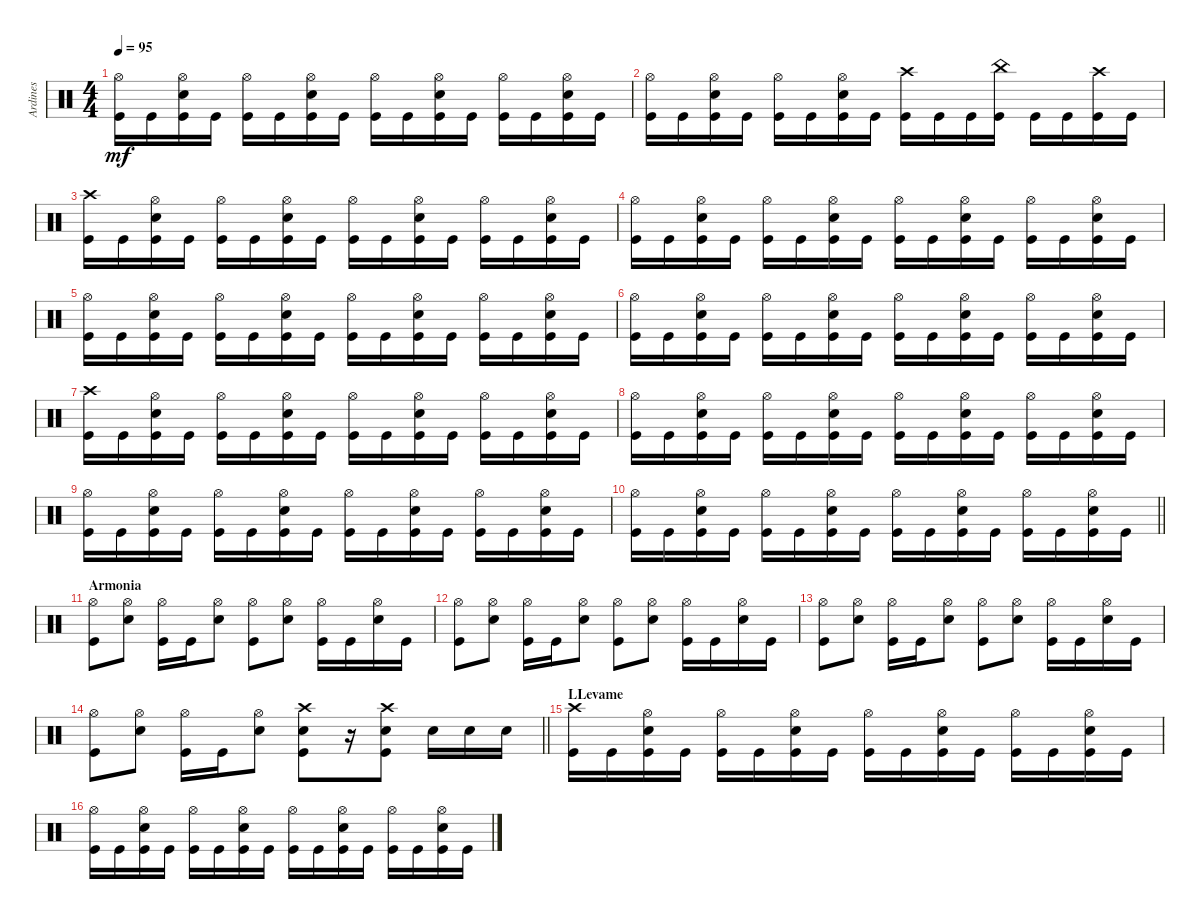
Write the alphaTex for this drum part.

\track ("Ardines" "Ardines") {instrument percussion}
\staff {score}
\articulation defaults
\ts (4 4)
\tempo 95
\clef neutral
\ks c
("Hi-Hat (open)" "Kick (hit)").16{dy mf} "Kick (hit)".16 ("Hi-Hat (open)" "Snare (hit) 2" "Kick (hit)").16 "Kick (hit)".16 ("Hi-Hat (open)" "Kick (hit)").16 "Kick (hit)".16 ("Hi-Hat (open)" "Snare (hit) 2" "Kick (hit)").16 "Kick (hit)".16 ("Hi-Hat (open)" "Kick (hit)").16 "Kick (hit)".16 ("Hi-Hat (open)" "Snare (hit) 2" "Kick (hit)").16 "Kick (hit)".16 ("Hi-Hat (open)" "Kick (hit)").16 "Kick (hit)".16 ("Hi-Hat (open)" "Snare (hit) 2" "Kick (hit)").16 "Kick (hit)".16 |
("Hi-Hat (open)" "Kick (hit)").16 "Kick (hit)".16 ("Hi-Hat (open)" "Snare (hit) 2" "Kick (hit)").16 "Kick (hit)".16 ("Hi-Hat (open)" "Kick (hit)").16 "Kick (hit)".16 ("Hi-Hat (open)" "Snare (hit) 2" "Kick (hit)").16 "Kick (hit)".16 ("Crash high (hit)" "Kick (hit)").16 "Kick (hit)".16 "Kick (hit)".16 ("China (hit)" "Kick (hit)").16 "Kick (hit)".16 "Kick (hit)".16 ("Crash high (hit)" "Kick (hit)").16 "Kick (hit)".16 |
("Crash high (hit)" "Kick (hit)").16 "Kick (hit)".16 ("Hi-Hat (open)" "Snare (hit) 2" "Kick (hit)").16 "Kick (hit)".16 ("Hi-Hat (open)" "Kick (hit)").16 "Kick (hit)".16 ("Hi-Hat (open)" "Snare (hit) 2" "Kick (hit)").16 "Kick (hit)".16 ("Hi-Hat (open)" "Kick (hit)").16 "Kick (hit)".16 ("Hi-Hat (open)" "Snare (hit) 2" "Kick (hit)").16 "Kick (hit)".16 ("Hi-Hat (open)" "Kick (hit)").16 "Kick (hit)".16 ("Hi-Hat (open)" "Snare (hit) 2" "Kick (hit)").16 "Kick (hit)".16 |
("Hi-Hat (open)" "Kick (hit)").16 "Kick (hit)".16 ("Hi-Hat (open)" "Snare (hit) 2" "Kick (hit)").16 "Kick (hit)".16 ("Hi-Hat (open)" "Kick (hit)").16 "Kick (hit)".16 ("Hi-Hat (open)" "Snare (hit) 2" "Kick (hit)").16 "Kick (hit)".16 ("Hi-Hat (open)" "Kick (hit)").16 "Kick (hit)".16 ("Hi-Hat (open)" "Snare (hit) 2" "Kick (hit)").16 "Kick (hit)".16 ("Hi-Hat (open)" "Kick (hit)").16 "Kick (hit)".16 ("Hi-Hat (open)" "Snare (hit) 2" "Kick (hit)").16 "Kick (hit)".16 |
("Hi-Hat (open)" "Kick (hit)").16 "Kick (hit)".16 ("Hi-Hat (open)" "Snare (hit) 2" "Kick (hit)").16 "Kick (hit)".16 ("Hi-Hat (open)" "Kick (hit)").16 "Kick (hit)".16 ("Hi-Hat (open)" "Snare (hit) 2" "Kick (hit)").16 "Kick (hit)".16 ("Hi-Hat (open)" "Kick (hit)").16 "Kick (hit)".16 ("Hi-Hat (open)" "Snare (hit) 2" "Kick (hit)").16 "Kick (hit)".16 ("Hi-Hat (open)" "Kick (hit)").16 "Kick (hit)".16 ("Hi-Hat (open)" "Snare (hit) 2" "Kick (hit)").16 "Kick (hit)".16 |
("Hi-Hat (open)" "Kick (hit)").16 "Kick (hit)".16 ("Hi-Hat (open)" "Snare (hit) 2" "Kick (hit)").16 "Kick (hit)".16 ("Hi-Hat (open)" "Kick (hit)").16 "Kick (hit)".16 ("Hi-Hat (open)" "Snare (hit) 2" "Kick (hit)").16 "Kick (hit)".16 ("Hi-Hat (open)" "Kick (hit)").16 "Kick (hit)".16 ("Hi-Hat (open)" "Snare (hit) 2" "Kick (hit)").16 "Kick (hit)".16 ("Hi-Hat (open)" "Kick (hit)").16 "Kick (hit)".16 ("Hi-Hat (open)" "Snare (hit) 2" "Kick (hit)").16 "Kick (hit)".16 |
("Crash high (hit)" "Kick (hit)").16 "Kick (hit)".16 ("Hi-Hat (open)" "Snare (hit) 2" "Kick (hit)").16 "Kick (hit)".16 ("Hi-Hat (open)" "Kick (hit)").16 "Kick (hit)".16 ("Hi-Hat (open)" "Snare (hit) 2" "Kick (hit)").16 "Kick (hit)".16 ("Hi-Hat (open)" "Kick (hit)").16 "Kick (hit)".16 ("Hi-Hat (open)" "Snare (hit) 2" "Kick (hit)").16 "Kick (hit)".16 ("Hi-Hat (open)" "Kick (hit)").16 "Kick (hit)".16 ("Hi-Hat (open)" "Snare (hit) 2" "Kick (hit)").16 "Kick (hit)".16 |
("Hi-Hat (open)" "Kick (hit)").16 "Kick (hit)".16 ("Hi-Hat (open)" "Snare (hit) 2" "Kick (hit)").16 "Kick (hit)".16 ("Hi-Hat (open)" "Kick (hit)").16 "Kick (hit)".16 ("Hi-Hat (open)" "Snare (hit) 2" "Kick (hit)").16 "Kick (hit)".16 ("Hi-Hat (open)" "Kick (hit)").16 "Kick (hit)".16 ("Hi-Hat (open)" "Snare (hit) 2" "Kick (hit)").16 "Kick (hit)".16 ("Hi-Hat (open)" "Kick (hit)").16 "Kick (hit)".16 ("Hi-Hat (open)" "Snare (hit) 2" "Kick (hit)").16 "Kick (hit)".16 |
("Hi-Hat (open)" "Kick (hit)").16 "Kick (hit)".16 ("Hi-Hat (open)" "Snare (hit) 2" "Kick (hit)").16 "Kick (hit)".16 ("Hi-Hat (open)" "Kick (hit)").16 "Kick (hit)".16 ("Hi-Hat (open)" "Snare (hit) 2" "Kick (hit)").16 "Kick (hit)".16 ("Hi-Hat (open)" "Kick (hit)").16 "Kick (hit)".16 ("Hi-Hat (open)" "Snare (hit) 2" "Kick (hit)").16 "Kick (hit)".16 ("Hi-Hat (open)" "Kick (hit)").16 "Kick (hit)".16 ("Hi-Hat (open)" "Snare (hit) 2" "Kick (hit)").16 "Kick (hit)".16 |
\barLineRight lightlight
("Hi-Hat (open)" "Kick (hit)").16 "Kick (hit)".16 ("Hi-Hat (open)" "Snare (hit) 2" "Kick (hit)").16 "Kick (hit)".16 ("Hi-Hat (open)" "Kick (hit)").16 "Kick (hit)".16 ("Hi-Hat (open)" "Snare (hit) 2" "Kick (hit)").16 "Kick (hit)".16 ("Hi-Hat (open)" "Kick (hit)").16 "Kick (hit)".16 ("Hi-Hat (open)" "Snare (hit) 2" "Kick (hit)").16 "Kick (hit)".16 ("Hi-Hat (open)" "Kick (hit)").16 "Kick (hit)".16 ("Hi-Hat (open)" "Snare (hit) 2" "Kick (hit)").16 "Kick (hit)".16 |
\section ("" "Armonia")
("Hi-Hat (open)" "Kick (hit)").8 ("Hi-Hat (open)" "Snare (hit) 2").8 ("Hi-Hat (open)" "Kick (hit)").16 "Kick (hit)".16 ("Hi-Hat (open)" "Snare (hit) 2").8 ("Hi-Hat (open)" "Kick (hit)").8 ("Hi-Hat (open)" "Snare (hit) 2").8 ("Hi-Hat (open)" "Kick (hit)").16 "Kick (hit)".16 ("Hi-Hat (open)" "Snare (hit) 2").16 "Kick (hit)".16 |
("Hi-Hat (open)" "Kick (hit)").8 ("Hi-Hat (open)" "Snare (hit) 2").8 ("Hi-Hat (open)" "Kick (hit)").16 "Kick (hit)".16 ("Hi-Hat (open)" "Snare (hit) 2").8 ("Hi-Hat (open)" "Kick (hit)").8 ("Hi-Hat (open)" "Snare (hit) 2").8 ("Hi-Hat (open)" "Kick (hit)").16 "Kick (hit)".16 ("Hi-Hat (open)" "Snare (hit) 2").16 "Kick (hit)".16 |
("Hi-Hat (open)" "Kick (hit)").8 ("Hi-Hat (open)" "Snare (hit) 2").8 ("Hi-Hat (open)" "Kick (hit)").16 "Kick (hit)".16 ("Hi-Hat (open)" "Snare (hit) 2").8 ("Hi-Hat (open)" "Kick (hit)").8 ("Hi-Hat (open)" "Snare (hit) 2").8 ("Hi-Hat (open)" "Kick (hit)").16 "Kick (hit)".16 ("Hi-Hat (open)" "Snare (hit) 2").16 "Kick (hit)".16 |
\barLineRight lightlight
("Hi-Hat (open)" "Kick (hit)").8 ("Hi-Hat (open)" "Snare (hit) 2").8 ("Hi-Hat (open)" "Kick (hit)").16 "Kick (hit)".16 ("Hi-Hat (open)" "Snare (hit) 2").8 ("Crash high (hit)" "Snare (hit) 2" "Kick (hit)").8 r.16 ("Crash high (hit)" "Snare (hit) 2" "Kick (hit)").8 "Snare (hit) 2".16 "Snare (hit) 2".16 "Snare (hit) 2".16 |
\section ("" "LLevame")
("Crash high (hit)" "Kick (hit)").16 "Kick (hit)".16 ("Hi-Hat (open)" "Snare (hit) 2" "Kick (hit)").16 "Kick (hit)".16 ("Hi-Hat (open)" "Kick (hit)").16 "Kick (hit)".16 ("Hi-Hat (open)" "Snare (hit) 2" "Kick (hit)").16 "Kick (hit)".16 ("Hi-Hat (open)" "Kick (hit)").16 "Kick (hit)".16 ("Hi-Hat (open)" "Snare (hit) 2" "Kick (hit)").16 "Kick (hit)".16 ("Hi-Hat (open)" "Kick (hit)").16 "Kick (hit)".16 ("Hi-Hat (open)" "Snare (hit) 2" "Kick (hit)").16 "Kick (hit)".16 |
("Hi-Hat (open)" "Kick (hit)").16 "Kick (hit)".16 ("Hi-Hat (open)" "Snare (hit) 2" "Kick (hit)").16 "Kick (hit)".16 ("Hi-Hat (open)" "Kick (hit)").16 "Kick (hit)".16 ("Hi-Hat (open)" "Snare (hit) 2" "Kick (hit)").16 "Kick (hit)".16 ("Hi-Hat (open)" "Kick (hit)").16 "Kick (hit)".16 ("Hi-Hat (open)" "Snare (hit) 2" "Kick (hit)").16 "Kick (hit)".16 ("Hi-Hat (open)" "Kick (hit)").16 "Kick (hit)".16 ("Hi-Hat (open)" "Snare (hit) 2" "Kick (hit)").16 "Kick (hit)".16
